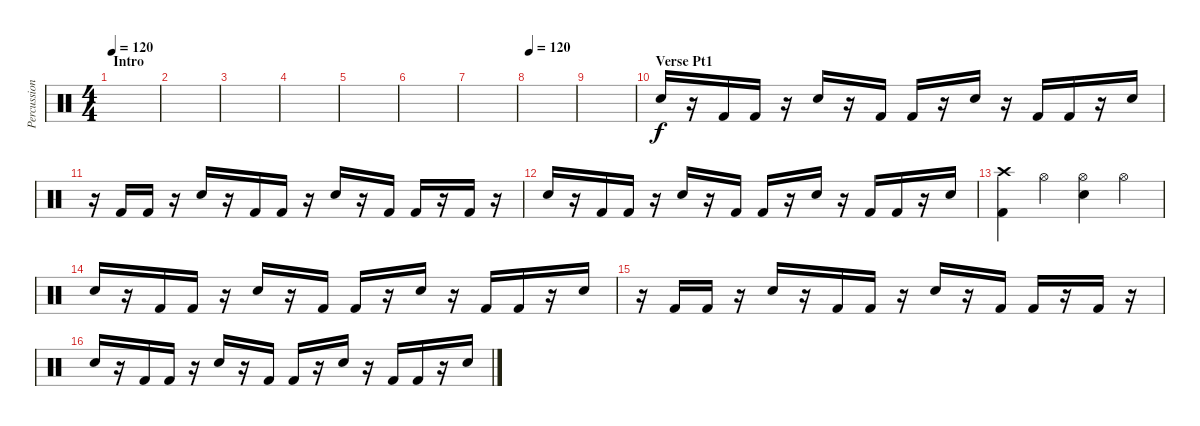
\track ("Percussion" "Percussion") {instrument percussion}
\staff {score}
\articulation defaults
\ts (4 4)
\section ("" "Intro")
\tempo 120
\tempo 140
\tempo 120
\clef neutral
\ks c
|
|
|
|
|
|
|
\tempo 120
|
|
\section ("" "Verse Pt1")
"Electric Snare (hit)".16 r.16 "Kick (hit) 2".16 "Kick (hit) 2".16 r.16 "Electric Snare (hit)".16 r.16 "Kick (hit) 2".16 "Kick (hit) 2".16 r.16 "Electric Snare (hit)".16 r.16 "Kick (hit) 2".16 "Kick (hit) 2".16 r.16 "Electric Snare (hit)".16 |
r.16 "Kick (hit) 2".16 "Kick (hit) 2".16 r.16 "Electric Snare (hit)".16 r.16 "Kick (hit) 2".16 "Kick (hit) 2".16 r.16 "Electric Snare (hit)".16 r.16 "Kick (hit) 2".16 "Kick (hit) 2".16 r.16 "Kick (hit) 2".16 r.16 |
"Electric Snare (hit)".16 r.16 "Kick (hit) 2".16 "Kick (hit) 2".16 r.16 "Electric Snare (hit)".16 r.16 "Kick (hit) 2".16 "Kick (hit) 2".16 r.16 "Electric Snare (hit)".16 r.16 "Kick (hit) 2".16 "Kick (hit) 2".16 r.16 "Electric Snare (hit)".16 |
("Crash high (hit)" "Kick (hit) 2").4 "Hi-Hat (open)".4 ("Hi-Hat (open)" "Electric Snare (hit)").4 "Hi-Hat (open)".4 |
"Electric Snare (hit)".16 r.16 "Kick (hit) 2".16 "Kick (hit) 2".16 r.16 "Electric Snare (hit)".16 r.16 "Kick (hit) 2".16 "Kick (hit) 2".16 r.16 "Electric Snare (hit)".16 r.16 "Kick (hit) 2".16 "Kick (hit) 2".16 r.16 "Electric Snare (hit)".16 |
r.16 "Kick (hit) 2".16 "Kick (hit) 2".16 r.16 "Electric Snare (hit)".16 r.16 "Kick (hit) 2".16 "Kick (hit) 2".16 r.16 "Electric Snare (hit)".16 r.16 "Kick (hit) 2".16 "Kick (hit) 2".16 r.16 "Kick (hit) 2".16 r.16 |
"Electric Snare (hit)".16 r.16 "Kick (hit) 2".16 "Kick (hit) 2".16 r.16 "Electric Snare (hit)".16 r.16 "Kick (hit) 2".16 "Kick (hit) 2".16 r.16 "Electric Snare (hit)".16 r.16 "Kick (hit) 2".16 "Kick (hit) 2".16 r.16 "Electric Snare (hit)".16
